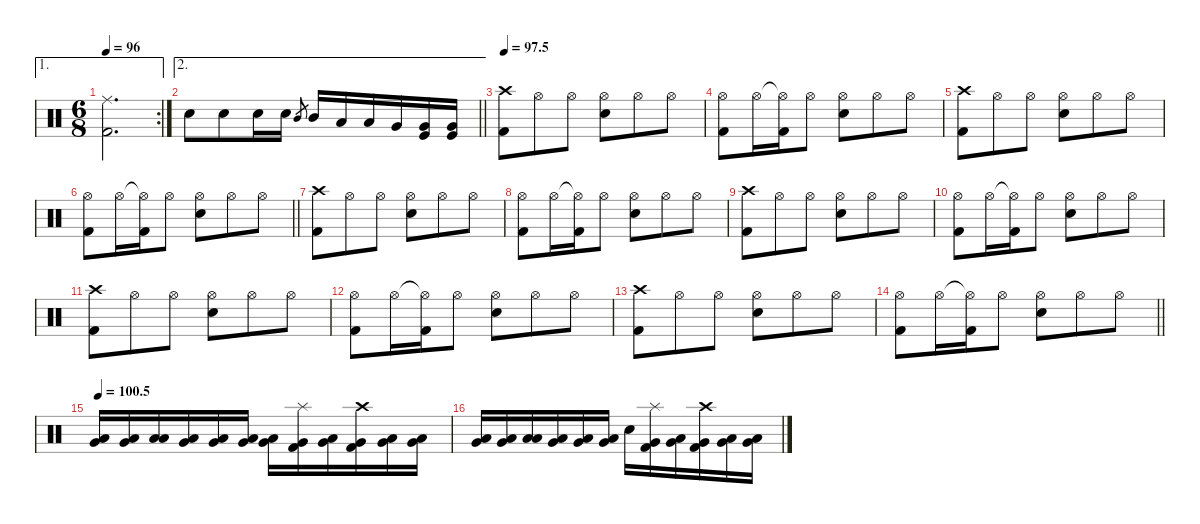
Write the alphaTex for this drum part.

\defaultSystemsLayout 4
\hideDynamics
\bracketExtendMode nobrackets
\singleTrackTrackNamePolicy hidden
\multiTrackTrackNamePolicy hidden
\firstSystemTrackNameMode fullname
\firstSystemTrackNameOrientation horizontal
\otherSystemsTrackNameOrientation horizontal
\track ("Drums" "drm.") {instrument percussion}
\staff {score}
\articulation defaults
\ae 1
\rc 2
\ts (6 8)
\tempo 96
\clef neutral
\ks c
("Ride (middle)"{t} "Kick (hit) 2"{t}).2{d dy f beam Down} |
\ae 2
\barLineRight lightlight "Snare (hit) 2".8{beam Down} "Snare (hit) 2".8{beam Down} "Snare (hit) 2".16{beam Down} "Snare (hit) 2".16{beam Down} "Mid Tom (hit)".8{gr dy mf beam Up} "Mid Tom (hit)".16{dy f beam Up} "Low Tom (hit)".16{beam Up} "Low Tom (hit)".16{beam Up} "Very Low Tom (hit)".16{beam Up}
("Very Low Tom (hit)" "Kick (hit)").16{beam Up} ("Kick (hit)" "Very Low Tom (hit)").16{beam Up} |
\tempo
97.5 ("Crash high (hit)" "Kick (hit) 2").8{beam Down} "Hi-Hat (open)".8{beam Down} "Hi-Hat (open)".8{beam Down} ("Hi-Hat (open)" "Snare (hit) 2").8{beam Down} "Hi-Hat (open)".8{beam Down} "Hi-Hat (open)".8{beam Down} |
("Hi-Hat (open)" "Kick (hit) 2").8{beam Down} "Hi-Hat (open)".16{beam Down} ("Hi-Hat (open)"{t} "Kick (hit) 2").16{beam Down} "Hi-Hat (open)".8{beam Down} ("Hi-Hat (open)" "Snare (hit) 2").8{beam Down} "Hi-Hat (open)".8{beam Down} "Hi-Hat (open)".8{beam Down} |
("Crash high (hit)" "Kick (hit) 2").8{beam Down} "Hi-Hat (open)".8{beam Down} "Hi-Hat (open)".8{beam Down} ("Hi-Hat (open)" "Snare (hit) 2").8{beam Down} "Hi-Hat (open)".8{beam Down} "Hi-Hat (open)".8{beam Down} |
\barLineRight lightlight
("Hi-Hat (open)" "Kick (hit) 2").8{beam Down} "Hi-Hat (open)".16{beam Down} ("Hi-Hat (open)"{t} "Kick (hit) 2").16{beam Down} "Hi-Hat (open)".8{beam Down} ("Hi-Hat (open)" "Snare (hit) 2").8{beam Down} "Hi-Hat (open)".8{beam Down} "Hi-Hat (open)".8{beam Down} |
("Crash high (hit)" "Kick (hit) 2").8{beam Down} "Hi-Hat (open)".8{beam Down} "Hi-Hat (open)".8{beam Down} ("Hi-Hat (open)" "Snare (hit) 2").8{beam Down} "Hi-Hat (open)".8{beam Down} "Hi-Hat (open)".8{beam Down} |
("Hi-Hat (open)" "Kick (hit) 2").8{beam Down} "Hi-Hat (open)".16{beam Down} ("Hi-Hat (open)"{t} "Kick (hit) 2").16{beam Down} "Hi-Hat (open)".8{beam Down} ("Hi-Hat (open)" "Snare (hit) 2").8{beam Down} "Hi-Hat (open)".8{beam Down} "Hi-Hat (open)".8{beam Down} |
("Crash high (hit)" "Kick (hit) 2").8{beam Down} "Hi-Hat (open)".8{beam Down} "Hi-Hat (open)".8{beam Down} ("Hi-Hat (open)" "Snare (hit) 2").8{beam Down} "Hi-Hat (open)".8{beam Down} "Hi-Hat (open)".8{beam Down} |
("Hi-Hat (open)" "Kick (hit) 2").8{beam Down} "Hi-Hat (open)".16{beam Down} ("Hi-Hat (open)"{t} "Kick (hit) 2").16{beam Down} "Hi-Hat (open)".8{beam Down} ("Hi-Hat (open)" "Snare (hit) 2").8{beam Down} "Hi-Hat (open)".8{beam Down} "Hi-Hat (open)".8{beam Down} |
("Crash high (hit)" "Kick (hit) 2").8{beam Down} "Hi-Hat (open)".8{beam Down} "Hi-Hat (open)".8{beam Down} ("Hi-Hat (open)" "Snare (hit) 2").8{beam Down} "Hi-Hat (open)".8{beam Down} "Hi-Hat (open)".8{beam Down} |
("Hi-Hat (open)" "Kick (hit) 2").8{beam Down} "Hi-Hat (open)".16{beam Down} ("Hi-Hat (open)"{t} "Kick (hit) 2").16{beam Down} "Hi-Hat (open)".8{beam Down} ("Hi-Hat (open)" "Snare (hit) 2").8{beam Down} "Hi-Hat (open)".8{beam Down} "Hi-Hat (open)".8{beam Down} |
("Crash high (hit)" "Kick (hit) 2").8{beam Down} "Hi-Hat (open)".8{beam Down} "Hi-Hat (open)".8{beam Down} ("Hi-Hat (open)" "Snare (hit) 2").8{beam Down} "Hi-Hat (open)".8{beam Down} "Hi-Hat (open)".8{beam Down} |
\barLineRight lightlight
("Hi-Hat (open)" "Kick (hit) 2").8{beam Down} "Hi-Hat (open)".16{beam Down} ("Hi-Hat (open)"{t} "Kick (hit) 2").16{beam Down} "Hi-Hat (open)".8{beam Down} ("Hi-Hat (open)" "Snare (hit) 2").8{beam Down} "Hi-Hat (open)".8{beam Down} "Hi-Hat (open)".8{beam Down} |
\tempo
100.5 ("Low Tom (hit)" "Very Low Tom (hit)").16{dy mf beam Up} ("Low Tom (hit)" "Very Low Tom (hit)").16{dy f beam Up} ("Low Tom (hit)" "Low Tom (hit)").16{dy mf beam Up} ("Low Tom (hit)" "Very Low Tom (hit)").16{dy f beam Up} ("Low Tom (hit)" "Very Low Tom (hit)").16{dy mp beam Up} ("Low Tom (hit)" "Very Low Tom (hit)").16{dy f beam Up} ("Low Tom (hit)" "Very Low Tom (hit)").16{dy mf beam Down} ("Splash (hit)" "Very Low Tom (hit)" "Kick (hit) 2").16{dy ff beam Down} ("Low Tom (hit)" "Very Low Tom (hit)").16{dy mp beam Down} ("Crash high (hit)" "Very Low Tom (hit)" "Kick (hit) 2").16{dy f beam Down} ("Low Tom (hit)" "Very Low Tom (hit)").16{dy mf beam Down} ("Low Tom (hit)" "Very Low Tom (hit)").16{dy f beam Down} |
("Low Tom (hit)" "Very Low Tom (hit)").16{dy mf beam Up} ("Low Tom (hit)" "Very Low Tom (hit)").16{dy f beam Up} ("Low Tom (hit)" "Low Tom (hit)").16{dy mf beam Up} ("Low Tom (hit)" "Very Low Tom (hit)").16{dy f beam Up} ("Low Tom (hit)" "Very Low Tom (hit)").16{dy mp beam Up} ("Low Tom (hit)" "Very Low Tom (hit)").16{dy f beam Up} "Snare (hit) 2".16{beam Down} ("Splash (hit)" "Very Low Tom (hit)" "Kick (hit) 2").16{dy ff beam Down} ("Low Tom (hit)" "Very Low Tom (hit)").16{dy mp beam Down} ("Crash high (hit)" "Very Low Tom (hit)" "Kick (hit) 2").16{dy f beam Down} ("Low Tom (hit)" "Very Low Tom (hit)").16{dy mf beam Down} ("Low Tom (hit)" "Very Low Tom (hit)").16{dy f beam Down}
